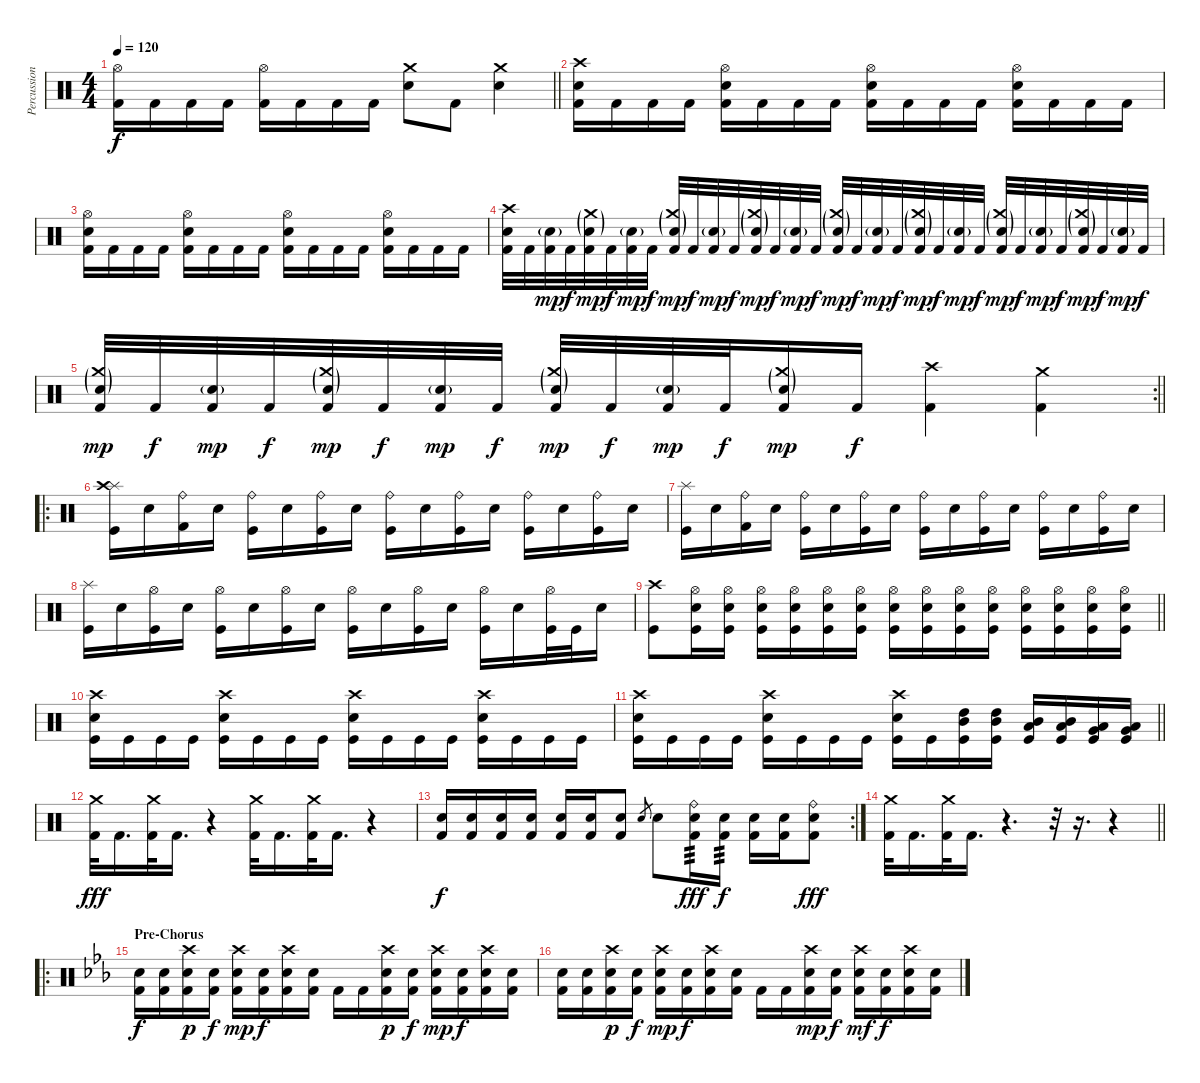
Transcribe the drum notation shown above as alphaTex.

\track ("Percussions" "Percussion") {instrument percussion}
\staff {score}
\articulation defaults
\ts (4 4)
\tempo 120
\clef neutral
\barLineRight lightlight
\ks c
("Hi-Hat (open)" "Kick (hit) 2").16{dy f} "Kick (hit) 2".16 "Kick (hit) 2".16 "Kick (hit) 2".16 ("Hi-Hat (open)" "Kick (hit) 2").16 "Kick (hit) 2".16 "Kick (hit) 2".16 "Kick (hit) 2".16 ("Crash medium (hit)" "Electric Snare (hit)").8 "Kick (hit) 2".8 ("Crash medium (hit)" "Electric Snare (hit)").4 |
("Crash high (hit)" "Electric Snare (hit)" "Kick (hit) 2").16 "Kick (hit) 2".16 "Kick (hit) 2".16 "Kick (hit) 2".16 ("Hi-Hat (open)" "Electric Snare (hit)" "Kick (hit) 2").16 "Kick (hit) 2".16 "Kick (hit) 2".16 "Kick (hit) 2".16 ("Hi-Hat (open)" "Electric Snare (hit)" "Kick (hit) 2").16 "Kick (hit) 2".16 "Kick (hit) 2".16 "Kick (hit) 2".16 ("Hi-Hat (open)" "Electric Snare (hit)" "Kick (hit) 2").16 "Kick (hit) 2".16 "Kick (hit) 2".16 "Kick (hit) 2".16 |
("Hi-Hat (open)" "Electric Snare (hit)" "Kick (hit) 2").16 "Kick (hit) 2".16 "Kick (hit) 2".16 "Kick (hit) 2".16 ("Hi-Hat (open)" "Electric Snare (hit)" "Kick (hit) 2").16 "Kick (hit) 2".16 "Kick (hit) 2".16 "Kick (hit) 2".16 ("Hi-Hat (open)" "Electric Snare (hit)" "Kick (hit) 2").16 "Kick (hit) 2".16 "Kick (hit) 2".16 "Kick (hit) 2".16 ("Hi-Hat (open)" "Electric Snare (hit)" "Kick (hit) 2").16 "Kick (hit) 2".16 "Kick (hit) 2".16 "Kick (hit) 2".16 |
("Crash high (hit)" "Electric Snare (hit)" "Kick (hit) 2").32 "Kick (hit) 2".32 ("Electric Snare (hit)"{g} "Kick (hit) 2").32{dy mp} "Kick (hit) 2".32{dy f} ("Crash medium (hit)"{g} "Electric Snare (hit)"{g} "Kick (hit) 2").32{dy mp} "Kick (hit) 2".32{dy f} ("Electric Snare (hit)"{g} "Kick (hit) 2").32{dy mp} "Kick (hit) 2".32{dy f} ("Crash medium (hit)"{g} "Electric Snare (hit)"{g} "Kick (hit) 2").32{dy mp} "Kick (hit) 2".32{dy f} ("Electric Snare (hit)"{g} "Kick (hit) 2").32{dy mp} "Kick (hit) 2".32{dy f} ("Crash medium (hit)"{g} "Electric Snare (hit)"{g} "Kick (hit) 2").32{dy mp} "Kick (hit) 2".32{dy f} ("Electric Snare (hit)"{g} "Kick (hit) 2").32{dy mp} "Kick (hit) 2".32{dy f} ("Crash medium (hit)"{g} "Electric Snare (hit)"{g} "Kick (hit) 2").32{dy mp} "Kick (hit) 2".32{dy f} ("Electric Snare (hit)"{g} "Kick (hit) 2").32{dy mp} "Kick (hit) 2".32{dy f} ("Crash medium (hit)"{g} "Electric Snare (hit)"{g} "Kick (hit) 2").32{dy mp} "Kick (hit) 2".32{dy f} ("Electric Snare (hit)"{g} "Kick (hit) 2").32{dy mp} "Kick (hit) 2".32{dy f} ("Crash medium (hit)"{g} "Electric Snare (hit)"{g} "Kick (hit) 2").32{dy mp} "Kick (hit) 2".32{dy f} ("Electric Snare (hit)"{g} "Kick (hit) 2").32{dy mp} "Kick (hit) 2".32{dy f} ("Crash medium (hit)"{g} "Electric Snare (hit)"{g} "Kick (hit) 2").32{dy mp} "Kick (hit) 2".32{dy f} ("Electric Snare (hit)"{g} "Kick (hit) 2").32{dy mp} "Kick (hit) 2".32{dy f} |
\rc 2
\barLineRight lightlight
("Crash medium (hit)"{g} "Electric Snare (hit)"{g} "Kick (hit) 2").32{dy mp} "Kick (hit) 2".32{dy f} ("Electric Snare (hit)"{g} "Kick (hit) 2").32{dy mp} "Kick (hit) 2".32{dy f} ("Crash medium (hit)"{g} "Electric Snare (hit)"{g} "Kick (hit) 2").32{dy mp} "Kick (hit) 2".32{dy f} ("Electric Snare (hit)"{g} "Kick (hit) 2").32{dy mp} "Kick (hit) 2".32{dy f} ("Crash medium (hit)"{g} "Electric Snare (hit)"{g} "Kick (hit) 2").32{dy mp} "Kick (hit) 2".32{dy f} ("Electric Snare (hit)"{g} "Kick (hit) 2").32{dy mp} "Kick (hit) 2".32{dy f} ("Crash medium (hit)"{g} "Electric Snare (hit)"{g} "Kick (hit) 2").16{dy mp} "Kick (hit) 2".16{dy f} ("Crash high (hit)" "Kick (hit) 2").4 ("Crash medium (hit)" "Kick (hit) 2").4 |
\ro
("Splash (hit)" "Crash high (hit)" "Kick (hit)").16 "Snare (hit) 2".16 ("Ride (bell)" "Kick (hit) 2").16 "Snare (hit) 2".16 ("Ride (bell)" "Kick (hit)").16 "Snare (hit) 2".16 ("Ride (bell)" "Kick (hit)").16 "Snare (hit) 2".16 ("Ride (bell)" "Kick (hit)").16 "Snare (hit) 2".16 ("Ride (bell)" "Kick (hit)").16 "Snare (hit) 2".16 ("Ride (bell)" "Kick (hit)").16 "Snare (hit) 2".16 ("Ride (bell)" "Kick (hit)").16 "Snare (hit) 2".16 |
("Splash (hit)" "Kick (hit)").16 "Snare (hit) 2".16 ("Ride (bell)" "Kick (hit) 2").16 "Snare (hit) 2".16 ("Ride (bell)" "Kick (hit)").16 "Snare (hit) 2".16 ("Ride (bell)" "Kick (hit)").16 "Snare (hit) 2".16 ("Ride (bell)" "Kick (hit)").16 "Snare (hit) 2".16 ("Ride (bell)" "Kick (hit)").16 "Snare (hit) 2".16 ("Ride (bell)" "Kick (hit)").16 "Snare (hit) 2".16 ("Ride (bell)" "Kick (hit)").16 "Snare (hit) 2".16 |
("Splash (hit)" "Kick (hit)").16 "Snare (hit) 2".16 ("Hi-Hat (open)" "Kick (hit)").16 "Snare (hit) 2".16 ("Hi-Hat (open)" "Kick (hit)").16 "Snare (hit) 2".16 ("Hi-Hat (open)" "Kick (hit)").16 "Snare (hit) 2".16 ("Hi-Hat (open)" "Kick (hit)").16 "Snare (hit) 2".16 ("Hi-Hat (open)" "Kick (hit)").16 "Snare (hit) 2".16 ("Hi-Hat (open)" "Kick (hit)").16 "Snare (hit) 2".16 ("Hi-Hat (open)" "Kick (hit)").32 "Kick (hit)".32 "Snare (hit) 2".16 |
\barLineRight lightlight
("Crash high (hit)" "Kick (hit)").8 ("Hi-Hat (open)" "Snare (hit) 2" "Kick (hit)").16 ("Hi-Hat (open)" "Snare (hit) 2" "Kick (hit)").16 ("Hi-Hat (open)" "Snare (hit) 2" "Kick (hit)").16 ("Hi-Hat (open)" "Snare (hit) 2" "Kick (hit)").16 ("Hi-Hat (open)" "Snare (hit) 2" "Kick (hit)").16 ("Hi-Hat (open)" "Snare (hit) 2" "Kick (hit)").16 ("Hi-Hat (open)" "Snare (hit) 2" "Kick (hit)").16 ("Hi-Hat (open)" "Snare (hit) 2" "Kick (hit)").16 ("Hi-Hat (open)" "Snare (hit) 2" "Kick (hit)").16 ("Hi-Hat (open)" "Snare (hit) 2" "Kick (hit)").16 ("Hi-Hat (open)" "Snare (hit) 2" "Kick (hit)").16 ("Hi-Hat (open)" "Snare (hit) 2" "Kick (hit)").16 ("Hi-Hat (open)" "Snare (hit) 2" "Kick (hit)").16 ("Hi-Hat (open)" "Snare (hit) 2" "Kick (hit)").16 |
("Crash high (hit)" "Snare (hit) 2" "Kick (hit)").16 "Kick (hit)".16 "Kick (hit)".16 "Kick (hit)".16 ("Crash high (hit)" "Snare (hit) 2" "Kick (hit)").16 "Kick (hit)".16 "Kick (hit)".16 "Kick (hit)".16 ("Crash high (hit)" "Snare (hit) 2" "Kick (hit)").16 "Kick (hit)".16 "Kick (hit)".16 "Kick (hit)".16 ("Crash high (hit)" "Snare (hit) 2" "Kick (hit)").16 "Kick (hit)".16 "Kick (hit)".16 "Kick (hit)".16 |
\barLineRight lightlight
("Crash high (hit)" "Snare (hit) 2" "Kick (hit)").16 "Kick (hit)".16 "Kick (hit)".16 "Kick (hit)".16 ("Crash high (hit)" "Snare (hit) 2" "Kick (hit)").16 "Kick (hit)".16 "Kick (hit)".16 "Kick (hit)".16 ("Crash high (hit)" "Snare (hit) 2" "Kick (hit)").16 "Kick (hit)".16 ("High Tom (hit)" "Mid Tom (hit)" "Kick (hit)").16 ("High Tom (hit)" "Mid Tom (hit)" "Kick (hit)").16 ("Mid Tom (hit)" "Low Tom (hit)" "Kick (hit)").16 ("Mid Tom (hit)" "Low Tom (hit)" "Kick (hit)").16 ("Low Tom (hit)" "Very Low Tom (hit)" "Kick (hit)").16 ("Low Tom (hit)" "Very Low Tom (hit)" "Kick (hit)").16 |
("Crash medium (hit)" "Kick (hit) 2").32{dy fff} "Kick (hit) 2".16{d} ("Crash medium (hit)" "Kick (hit) 2").32 "Kick (hit) 2".16{d} r.4 ("Crash medium (hit)" "Kick (hit) 2").32 "Kick (hit) 2".16{d} ("Crash medium (hit)" "Kick (hit) 2").32 "Kick (hit) 2".16{d} r.4 |
\rc 2
("Electric Snare (hit)" "Kick (hit) 2").16{dy f} ("Electric Snare (hit)" "Kick (hit) 2").16 ("Electric Snare (hit)" "Kick (hit) 2").16 ("Electric Snare (hit)" "Kick (hit) 2").16 ("Electric Snare (hit)" "Kick (hit) 2").16 ("Electric Snare (hit)" "Kick (hit) 2").16 ("Electric Snare (hit)" "Kick (hit) 2").8 "Electric Snare (hit)".8{gr} "Electric Snare (hit)".8 ("Ride (bell)" "Electric Snare (hit)" "Kick (hit) 2").16{tp 3 dy fff} ("Electric Snare (hit)" "Kick (hit) 2").16{tp 3 dy f} ("Electric Snare (hit)" "Kick (hit) 2").16 ("Electric Snare (hit)" "Kick (hit) 2").16 ("Ride (bell)" "Electric Snare (hit)" "Kick (hit) 2").8{dy fff} |
\barLineRight lightlight
("Crash medium (hit)" "Kick (hit) 2").32 "Kick (hit) 2".16{d} ("Crash medium (hit)" "Kick (hit) 2").32 "Kick (hit) 2".16{d} r.4{d} r.32 r.16{d} r.4 |
\ro
\section ("" "Pre-Chorus")
\ks eb
("Electric Snare (hit)" "Kick (hit) 2").16{dy f} ("Electric Snare (hit)" "Kick (hit) 2").16 ("Crash high (hit)" "Electric Snare (hit)" "Kick (hit) 2").16{dy p} ("Electric Snare (hit)" "Kick (hit) 2").16{dy f} ("Crash high (hit)" "Electric Snare (hit)" "Kick (hit) 2").16{dy mp} ("Electric Snare (hit)" "Kick (hit) 2").16{dy f} ("Crash high (hit)" "Electric Snare (hit)" "Kick (hit) 2").16 ("Electric Snare (hit)" "Kick (hit) 2").16 "Kick (hit) 2".16 "Kick (hit) 2".16 ("Crash high (hit)" "Electric Snare (hit)" "Kick (hit) 2").16{dy p} ("Electric Snare (hit)" "Kick (hit) 2").16{dy f} ("Crash high (hit)" "Electric Snare (hit)" "Kick (hit) 2").16{dy mp} ("Electric Snare (hit)" "Kick (hit) 2").16{dy f} ("Crash high (hit)" "Electric Snare (hit)" "Kick (hit) 2").16 ("Electric Snare (hit)" "Kick (hit) 2").16 |
("Electric Snare (hit)" "Kick (hit) 2").16 ("Electric Snare (hit)" "Kick (hit) 2").16 ("Crash high (hit)" "Electric Snare (hit)" "Kick (hit) 2").16{dy p} ("Electric Snare (hit)" "Kick (hit) 2").16{dy f} ("Crash high (hit)" "Electric Snare (hit)" "Kick (hit) 2").16{dy mp} ("Electric Snare (hit)" "Kick (hit) 2").16{dy f} ("Crash high (hit)" "Electric Snare (hit)" "Kick (hit) 2").16 ("Electric Snare (hit)" "Kick (hit) 2").16 "Kick (hit) 2".16 "Kick (hit) 2".16 ("Crash high (hit)" "Electric Snare (hit)" "Kick (hit) 2").16{dy mp} ("Electric Snare (hit)" "Kick (hit) 2").16{dy f} ("Crash high (hit)" "Electric Snare (hit)" "Kick (hit) 2").16{dy mf} ("Electric Snare (hit)" "Kick (hit) 2").16{dy f} ("Crash high (hit)" "Electric Snare (hit)" "Kick (hit) 2").16 ("Electric Snare (hit)" "Kick (hit) 2").16
